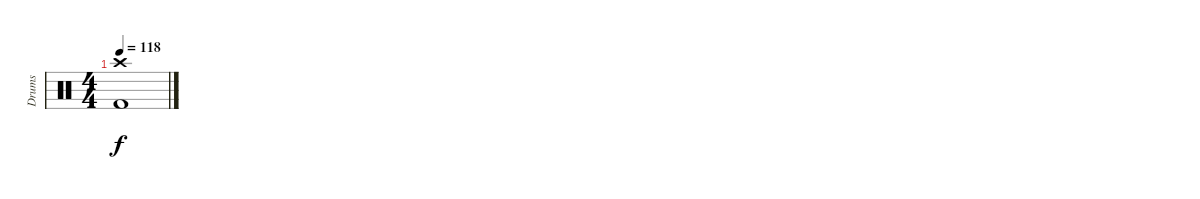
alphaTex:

\track ("Drums" "Drums") {instrument percussion}
\staff {score}
\articulation defaults
\ts (4 4)
\tempo 118
\clef neutral
\ks c
("Crash high (hit)" "Kick (hit) 2").1{dy f}
